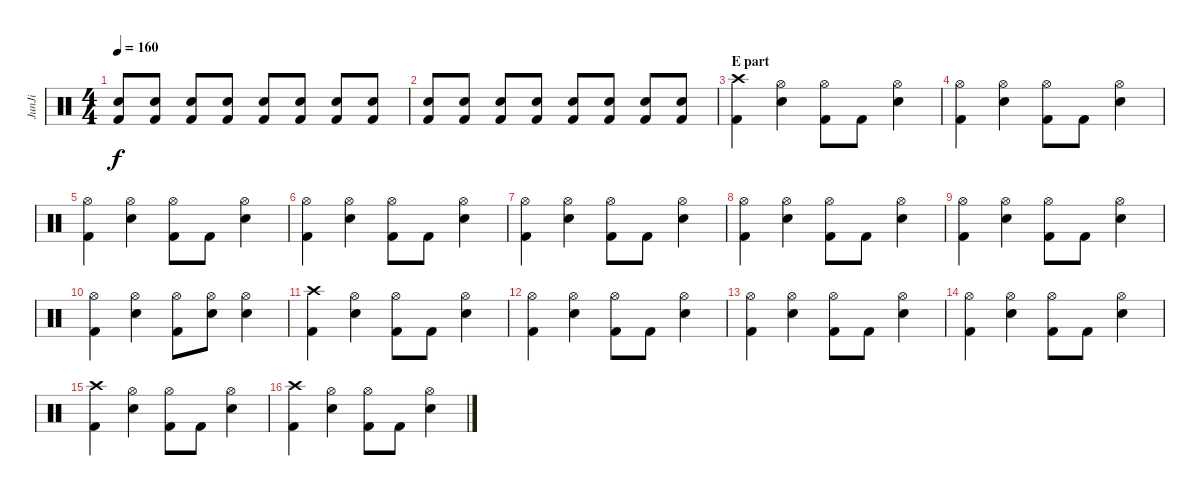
\track ("JunJi" "JunJi") {instrument percussion}
\staff {score}
\articulation defaults
\ts (4 4)
\tempo 160
\clef neutral
\ks c
("Snare (hit) 2" "Kick (hit) 2").8{dy f} ("Snare (hit) 2" "Kick (hit) 2").8 ("Snare (hit) 2" "Kick (hit) 2").8 ("Snare (hit) 2" "Kick (hit) 2").8 ("Snare (hit) 2" "Kick (hit) 2").8 ("Snare (hit) 2" "Kick (hit) 2").8 ("Snare (hit) 2" "Kick (hit) 2").8 ("Snare (hit) 2" "Kick (hit) 2").8 |
("Snare (hit) 2" "Kick (hit) 2").8 ("Snare (hit) 2" "Kick (hit) 2").8 ("Snare (hit) 2" "Kick (hit) 2").8 ("Snare (hit) 2" "Kick (hit) 2").8 ("Snare (hit) 2" "Kick (hit) 2").8 ("Snare (hit) 2" "Kick (hit) 2").8 ("Snare (hit) 2" "Kick (hit) 2").8 ("Snare (hit) 2" "Kick (hit) 2").8 |
\section ("" "E part")
("Crash high (hit)" "Kick (hit) 2").4 ("Hi-Hat (open)" "Snare (hit) 2").4 ("Hi-Hat (open)" "Kick (hit) 2").8 "Kick (hit) 2".8 ("Hi-Hat (open)" "Snare (hit) 2").4 |
("Hi-Hat (open)" "Kick (hit) 2").4 ("Hi-Hat (open)" "Snare (hit) 2").4 ("Hi-Hat (open)" "Kick (hit) 2").8 "Kick (hit) 2".8 ("Hi-Hat (open)" "Snare (hit) 2").4 |
("Hi-Hat (open)" "Kick (hit) 2").4 ("Hi-Hat (open)" "Snare (hit) 2").4 ("Hi-Hat (open)" "Kick (hit) 2").8 "Kick (hit) 2".8 ("Hi-Hat (open)" "Snare (hit) 2").4 |
("Hi-Hat (open)" "Kick (hit) 2").4 ("Hi-Hat (open)" "Snare (hit) 2").4 ("Hi-Hat (open)" "Kick (hit) 2").8 "Kick (hit) 2".8 ("Hi-Hat (open)" "Snare (hit) 2").4 |
("Hi-Hat (open)" "Kick (hit) 2").4 ("Hi-Hat (open)" "Snare (hit) 2").4 ("Hi-Hat (open)" "Kick (hit) 2").8 "Kick (hit) 2".8 ("Hi-Hat (open)" "Snare (hit) 2").4 |
("Hi-Hat (open)" "Kick (hit) 2").4 ("Hi-Hat (open)" "Snare (hit) 2").4 ("Hi-Hat (open)" "Kick (hit) 2").8 "Kick (hit) 2".8 ("Hi-Hat (open)" "Snare (hit) 2").4 |
("Hi-Hat (open)" "Kick (hit) 2").4 ("Hi-Hat (open)" "Snare (hit) 2").4 ("Hi-Hat (open)" "Kick (hit) 2").8 "Kick (hit) 2".8 ("Hi-Hat (open)" "Snare (hit) 2").4 |
("Hi-Hat (open)" "Kick (hit) 2").4 ("Hi-Hat (open)" "Snare (hit) 2").4 ("Hi-Hat (open)" "Kick (hit) 2").8 ("Hi-Hat (open)" "Snare (hit) 2").8 ("Hi-Hat (open)" "Snare (hit) 2").4 |
("Crash high (hit)" "Kick (hit) 2").4 ("Hi-Hat (open)" "Snare (hit) 2").4 ("Hi-Hat (open)" "Kick (hit) 2").8 "Kick (hit) 2".8 ("Hi-Hat (open)" "Snare (hit) 2").4 |
("Hi-Hat (open)" "Kick (hit) 2").4 ("Hi-Hat (open)" "Snare (hit) 2").4 ("Hi-Hat (open)" "Kick (hit) 2").8 "Kick (hit) 2".8 ("Hi-Hat (open)" "Snare (hit) 2").4 |
("Hi-Hat (open)" "Kick (hit) 2").4 ("Hi-Hat (open)" "Snare (hit) 2").4 ("Hi-Hat (open)" "Kick (hit) 2").8 "Kick (hit) 2".8 ("Hi-Hat (open)" "Snare (hit) 2").4 |
("Hi-Hat (open)" "Kick (hit) 2").4 ("Hi-Hat (open)" "Snare (hit) 2").4 ("Hi-Hat (open)" "Kick (hit) 2").8 "Kick (hit) 2".8 ("Hi-Hat (open)" "Snare (hit) 2").4 |
("Crash high (hit)" "Kick (hit) 2").4 ("Hi-Hat (open)" "Snare (hit) 2").4 ("Hi-Hat (open)" "Kick (hit) 2").8 "Kick (hit) 2".8 ("Hi-Hat (open)" "Snare (hit) 2").4 |
("Crash high (hit)" "Kick (hit) 2").4 ("Hi-Hat (open)" "Snare (hit) 2").4 ("Hi-Hat (open)" "Kick (hit) 2").8 "Kick (hit) 2".8 ("Hi-Hat (open)" "Snare (hit) 2").4
